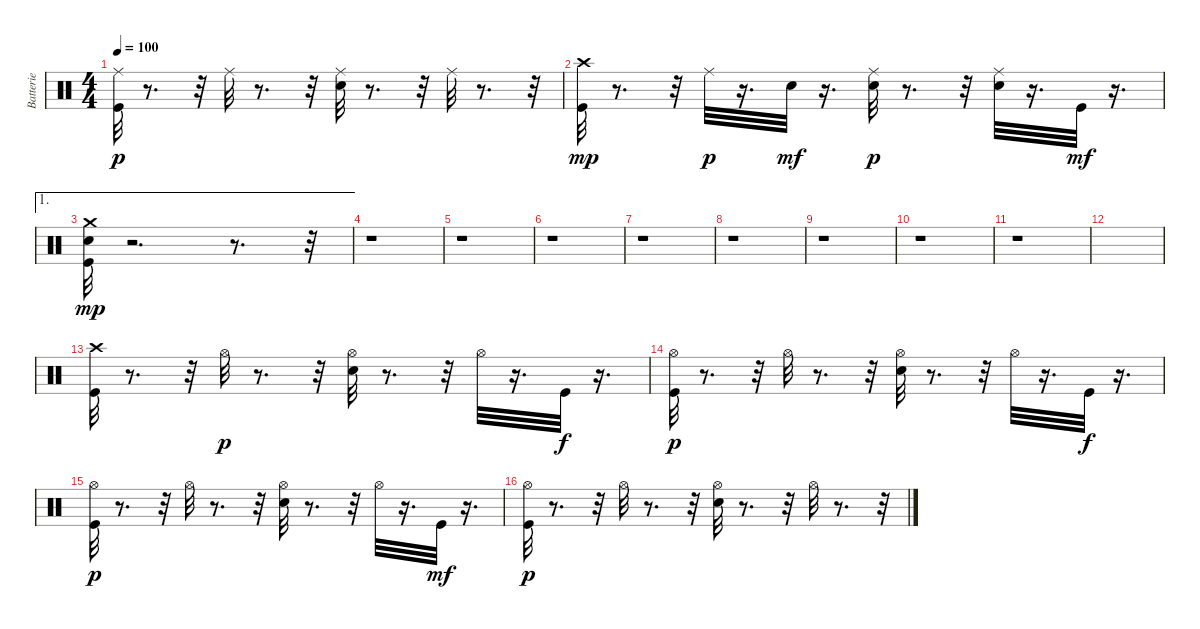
\track ("Batterie" "Batterie") {instrument percussion}
\staff {score}
\articulation defaults
\ts (4 4)
\tempo 100
\clef neutral
\ks c
("Kick (hit)" "Ride (middle)").32{dy p} r.8{d} r.32 "Ride (middle)".32 r.8{d} r.32 ("Snare (hit) 2" "Ride (middle)").32 r.8{d} r.32 "Ride (middle)".32 r.8{d} r.32 |
("Kick (hit)" "Crash high (hit)").32{dy mp} r.8{d} r.32 "Ride (middle)".32{dy p} r.16{d} "Snare (hit) 2".32{dy mf} r.16{d} ("Snare (hit) 2" "Ride (middle)").32{dy p} r.8{d} r.32 ("Snare (hit) 2" "Ride (middle)").32 r.16{d} "Kick (hit)".32{dy mf} r.16{d} |
\ae 1
("Kick (hit)" "Snare (hit) 2" "Crash medium (hit)").32{dy mp} r.2{d} r.8{d} r.32 |
r.1 |
r.1 |
r.1 |
r.1 |
r.1 |
r.1 |
r.1 |
r.1 |
|
("Kick (hit)" "Crash high (hit)").32 r.8{d} r.32 "Hi-Hat (open)".32{dy p} r.8{d} r.32 ("Snare (hit) 2" "Hi-Hat (open)").32 r.8{d} r.32 "Hi-Hat (open)".32 r.16{d} "Kick (hit)".32{dy f} r.16{d} |
("Kick (hit)" "Hi-Hat (open)").32{dy p} r.8{d} r.32 "Hi-Hat (open)".32 r.8{d} r.32 ("Snare (hit) 2" "Hi-Hat (open)").32 r.8{d} r.32 "Hi-Hat (open)".32 r.16{d} "Kick (hit)".32{dy f} r.16{d} |
("Kick (hit)" "Hi-Hat (open)").32{dy p} r.8{d} r.32 "Hi-Hat (open)".32 r.8{d} r.32 ("Snare (hit) 2" "Hi-Hat (open)").32 r.8{d} r.32 "Hi-Hat (open)".32 r.16{d} "Kick (hit)".32{dy mf} r.16{d} |
("Kick (hit)" "Hi-Hat (open)").32{dy p} r.8{d} r.32 "Hi-Hat (open)".32 r.8{d} r.32 ("Snare (hit) 2" "Hi-Hat (open)").32 r.8{d} r.32 "Hi-Hat (open)".32 r.8{d} r.32
